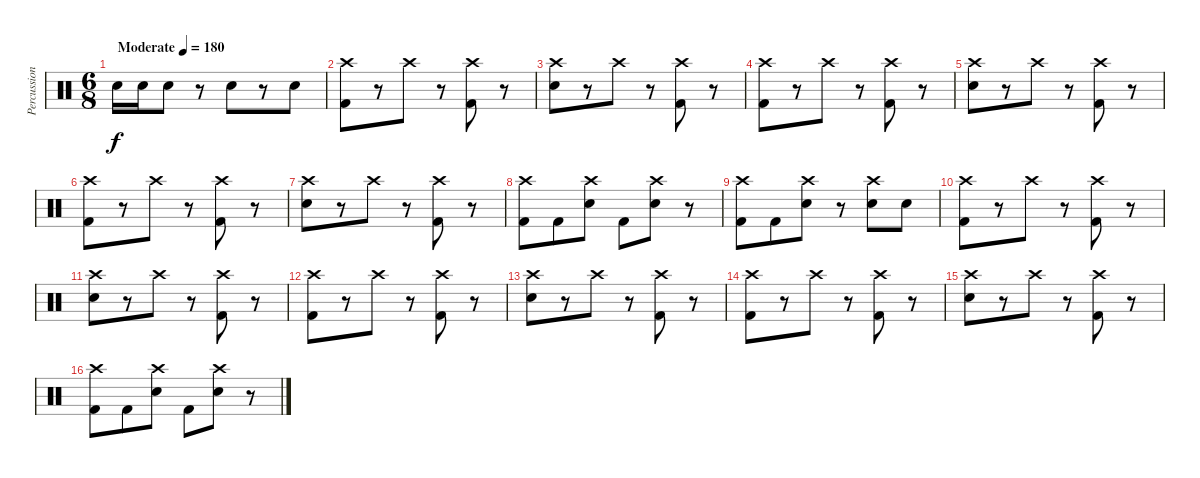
\track ("Percussion" "Percussion") {instrument percussion}
\staff {score}
\articulation defaults
\ts (6 8)
\tempo (180 "Moderate")
\clef neutral
\ks c "Electric Snare (hit)".16{dy f} "Electric Snare (hit)".16 "Electric Snare (hit)".8
r.8 "Electric Snare (hit)".8 r.8 "Electric Snare (hit)".8 |
("Crash high (hit)" "Kick (hit) 2").8 r.8 "Crash high (hit)".8 r.8 ("Crash high (hit)" "Kick (hit) 2").8 r.8 |
("Crash high (hit)" "Electric Snare (hit)").8 r.8 "Crash high (hit)".8 r.8 ("Crash high (hit)" "Kick (hit) 2").8 r.8 |
("Crash high (hit)" "Kick (hit) 2").8 r.8 "Crash high (hit)".8 r.8 ("Crash high (hit)" "Kick (hit) 2").8 r.8 |
("Crash high (hit)" "Electric Snare (hit)").8 r.8 "Crash high (hit)".8 r.8 ("Crash high (hit)" "Kick (hit) 2").8 r.8 |
("Crash high (hit)" "Kick (hit) 2").8 r.8 "Crash high (hit)".8 r.8 ("Crash high (hit)" "Kick (hit) 2").8 r.8 |
("Crash high (hit)" "Electric Snare (hit)").8 r.8 "Crash high (hit)".8 r.8 ("Crash high (hit)" "Kick (hit) 2").8 r.8 |
("Crash high (hit)" "Kick (hit) 2").8 "Kick (hit) 2".8 ("Crash high (hit)" "Electric Snare (hit)").8 "Kick (hit) 2".8 ("Crash high (hit)" "Electric Snare (hit)").8 r.8 |
("Crash high (hit)" "Kick (hit) 2").8 "Kick (hit) 2".8 ("Crash high (hit)" "Electric Snare (hit)").8 r.8 ("Crash high (hit)" "Electric Snare (hit)").8 "Electric Snare (hit)".8 |
("Crash high (hit)" "Kick (hit) 2").8 r.8 "Crash high (hit)".8 r.8 ("Crash high (hit)" "Kick (hit) 2").8 r.8 |
("Crash high (hit)" "Electric Snare (hit)").8 r.8 "Crash high (hit)".8 r.8 ("Crash high (hit)" "Kick (hit) 2").8 r.8 |
("Crash high (hit)" "Kick (hit) 2").8 r.8 "Crash high (hit)".8 r.8 ("Crash high (hit)" "Kick (hit) 2").8 r.8 |
("Crash high (hit)" "Electric Snare (hit)").8 r.8 "Crash high (hit)".8 r.8 ("Crash high (hit)" "Kick (hit) 2").8 r.8 |
("Crash high (hit)" "Kick (hit) 2").8 r.8 "Crash high (hit)".8 r.8 ("Crash high (hit)" "Kick (hit) 2").8 r.8 |
("Crash high (hit)" "Electric Snare (hit)").8 r.8 "Crash high (hit)".8 r.8 ("Crash high (hit)" "Kick (hit) 2").8 r.8 |
("Crash high (hit)" "Kick (hit) 2").8 "Kick (hit) 2".8 ("Crash high (hit)" "Electric Snare (hit)").8 "Kick (hit) 2".8 ("Crash high (hit)" "Electric Snare (hit)").8 r.8
